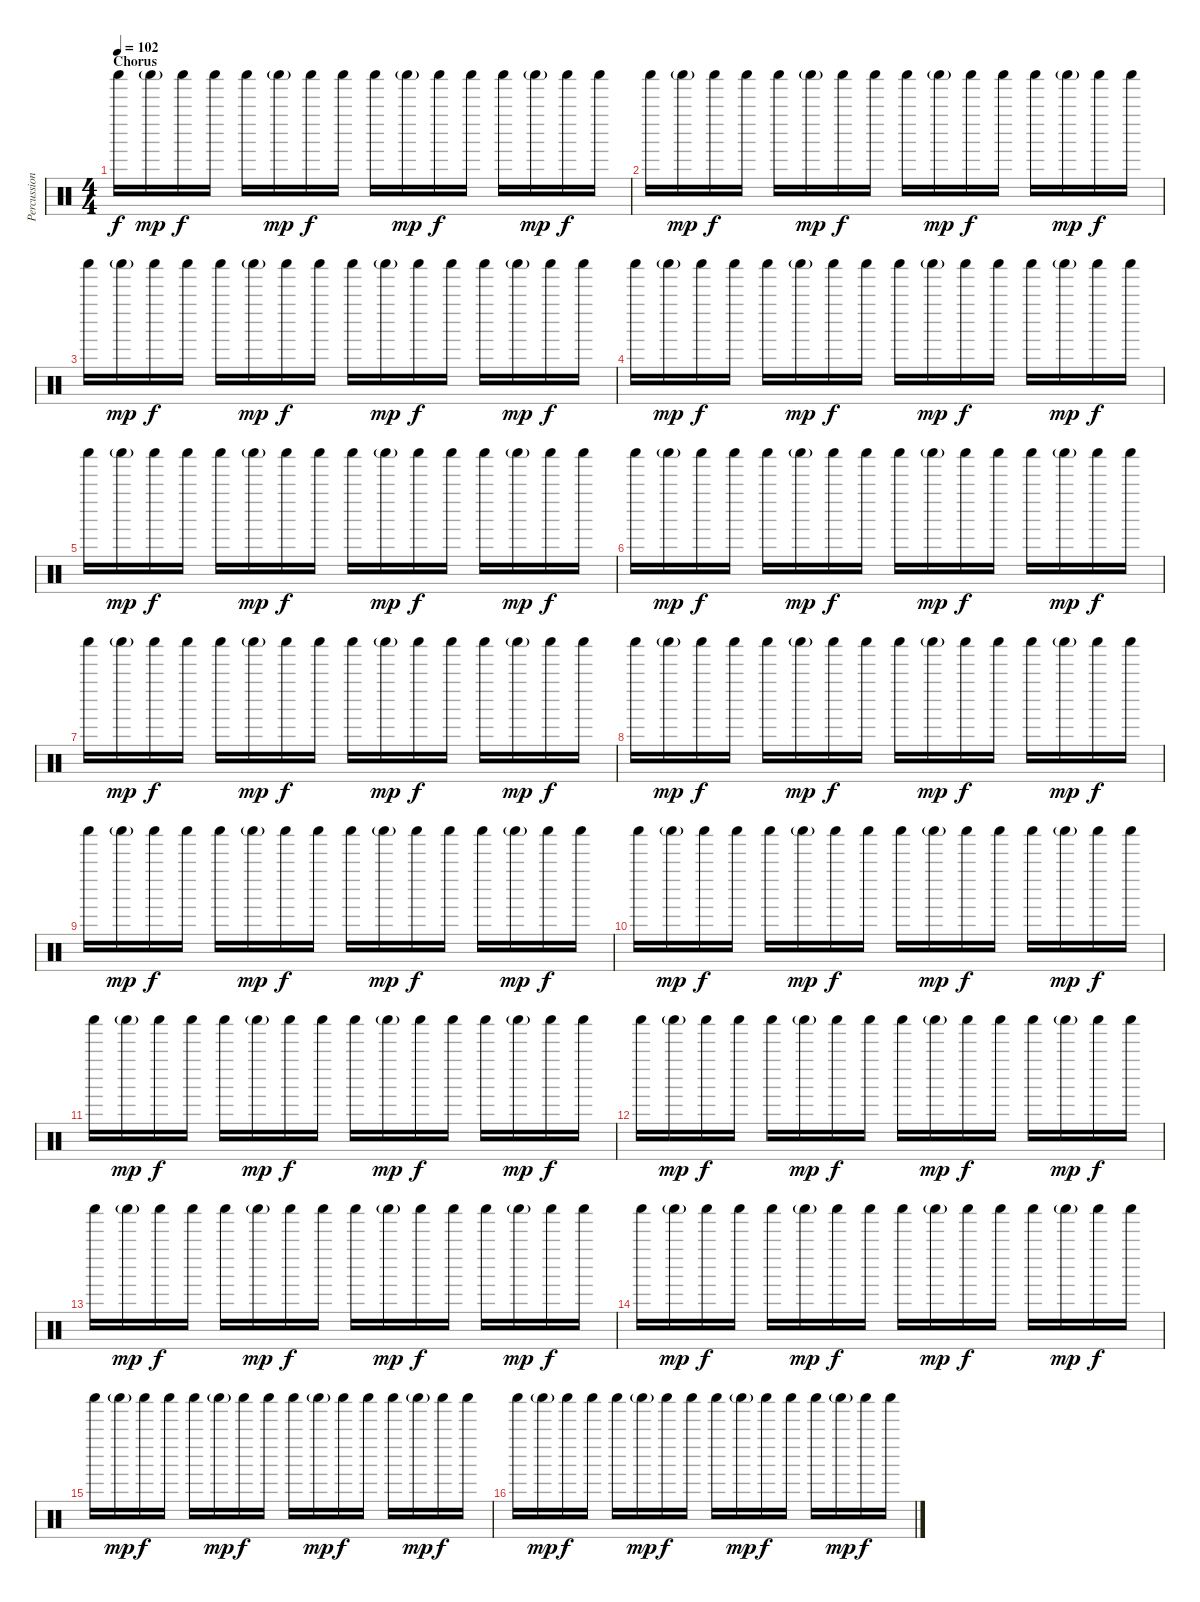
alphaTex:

\track ("Percussion" "Percussion") {instrument percussion}
\staff {score}
\articulation defaults
\ts (4 4)
\section ("" "Chorus")
\tempo 102
\clef neutral
\ks c "Shaker (hit)".16{dy f} "Shaker (hit)"{g}.16{dy mp} "Shaker (hit)".16{dy f} "Shaker (hit)".16 "Shaker (hit)".16 "Shaker (hit)"{g}.16{dy mp} "Shaker (hit)".16{dy f} "Shaker (hit)".16 "Shaker (hit)".16 "Shaker (hit)"{g}.16{dy mp} "Shaker (hit)".16{dy f} "Shaker (hit)".16 "Shaker (hit)".16 "Shaker (hit)"{g}.16{dy mp} "Shaker (hit)".16{dy f} "Shaker (hit)".16
|
"Shaker (hit)".16 "Shaker (hit)"{g}.16{dy mp} "Shaker (hit)".16{dy f} "Shaker (hit)".16 "Shaker (hit)".16 "Shaker (hit)"{g}.16{dy mp} "Shaker (hit)".16{dy f} "Shaker (hit)".16 "Shaker (hit)".16 "Shaker (hit)"{g}.16{dy mp} "Shaker (hit)".16{dy f} "Shaker (hit)".16 "Shaker (hit)".16 "Shaker (hit)"{g}.16{dy mp} "Shaker (hit)".16{dy f} "Shaker (hit)".16 |
"Shaker (hit)".16 "Shaker (hit)"{g}.16{dy mp} "Shaker (hit)".16{dy f} "Shaker (hit)".16 "Shaker (hit)".16 "Shaker (hit)"{g}.16{dy mp} "Shaker (hit)".16{dy f} "Shaker (hit)".16 "Shaker (hit)".16 "Shaker (hit)"{g}.16{dy mp} "Shaker (hit)".16{dy f} "Shaker (hit)".16 "Shaker (hit)".16 "Shaker (hit)"{g}.16{dy mp} "Shaker (hit)".16{dy f} "Shaker (hit)".16 |
"Shaker (hit)".16 "Shaker (hit)"{g}.16{dy mp} "Shaker (hit)".16{dy f} "Shaker (hit)".16 "Shaker (hit)".16 "Shaker (hit)"{g}.16{dy mp} "Shaker (hit)".16{dy f} "Shaker (hit)".16 "Shaker (hit)".16 "Shaker (hit)"{g}.16{dy mp} "Shaker (hit)".16{dy f} "Shaker (hit)".16 "Shaker (hit)".16 "Shaker (hit)"{g}.16{dy mp} "Shaker (hit)".16{dy f} "Shaker (hit)".16 |
"Shaker (hit)".16 "Shaker (hit)"{g}.16{dy mp} "Shaker (hit)".16{dy f} "Shaker (hit)".16 "Shaker (hit)".16 "Shaker (hit)"{g}.16{dy mp} "Shaker (hit)".16{dy f} "Shaker (hit)".16 "Shaker (hit)".16 "Shaker (hit)"{g}.16{dy mp} "Shaker (hit)".16{dy f} "Shaker (hit)".16 "Shaker (hit)".16 "Shaker (hit)"{g}.16{dy mp} "Shaker (hit)".16{dy f} "Shaker (hit)".16 |
"Shaker (hit)".16 "Shaker (hit)"{g}.16{dy mp} "Shaker (hit)".16{dy f} "Shaker (hit)".16 "Shaker (hit)".16 "Shaker (hit)"{g}.16{dy mp} "Shaker (hit)".16{dy f} "Shaker (hit)".16 "Shaker (hit)".16 "Shaker (hit)"{g}.16{dy mp} "Shaker (hit)".16{dy f} "Shaker (hit)".16 "Shaker (hit)".16 "Shaker (hit)"{g}.16{dy mp} "Shaker (hit)".16{dy f} "Shaker (hit)".16 |
"Shaker (hit)".16 "Shaker (hit)"{g}.16{dy mp} "Shaker (hit)".16{dy f} "Shaker (hit)".16 "Shaker (hit)".16 "Shaker (hit)"{g}.16{dy mp} "Shaker (hit)".16{dy f} "Shaker (hit)".16 "Shaker (hit)".16 "Shaker (hit)"{g}.16{dy mp} "Shaker (hit)".16{dy f} "Shaker (hit)".16 "Shaker (hit)".16 "Shaker (hit)"{g}.16{dy mp} "Shaker (hit)".16{dy f} "Shaker (hit)".16 |
"Shaker (hit)".16 "Shaker (hit)"{g}.16{dy mp} "Shaker (hit)".16{dy f} "Shaker (hit)".16 "Shaker (hit)".16 "Shaker (hit)"{g}.16{dy mp} "Shaker (hit)".16{dy f} "Shaker (hit)".16 "Shaker (hit)".16 "Shaker (hit)"{g}.16{dy mp} "Shaker (hit)".16{dy f} "Shaker (hit)".16 "Shaker (hit)".16 "Shaker (hit)"{g}.16{dy mp} "Shaker (hit)".16{dy f} "Shaker (hit)".16 |
"Shaker (hit)".16 "Shaker (hit)"{g}.16{dy mp} "Shaker (hit)".16{dy f} "Shaker (hit)".16 "Shaker (hit)".16 "Shaker (hit)"{g}.16{dy mp} "Shaker (hit)".16{dy f} "Shaker (hit)".16 "Shaker (hit)".16 "Shaker (hit)"{g}.16{dy mp} "Shaker (hit)".16{dy f} "Shaker (hit)".16 "Shaker (hit)".16 "Shaker (hit)"{g}.16{dy mp} "Shaker (hit)".16{dy f} "Shaker (hit)".16 |
"Shaker (hit)".16 "Shaker (hit)"{g}.16{dy mp} "Shaker (hit)".16{dy f} "Shaker (hit)".16 "Shaker (hit)".16 "Shaker (hit)"{g}.16{dy mp} "Shaker (hit)".16{dy f} "Shaker (hit)".16 "Shaker (hit)".16 "Shaker (hit)"{g}.16{dy mp} "Shaker (hit)".16{dy f} "Shaker (hit)".16 "Shaker (hit)".16 "Shaker (hit)"{g}.16{dy mp} "Shaker (hit)".16{dy f} "Shaker (hit)".16 |
"Shaker (hit)".16 "Shaker (hit)"{g}.16{dy mp} "Shaker (hit)".16{dy f} "Shaker (hit)".16 "Shaker (hit)".16 "Shaker (hit)"{g}.16{dy mp} "Shaker (hit)".16{dy f} "Shaker (hit)".16 "Shaker (hit)".16 "Shaker (hit)"{g}.16{dy mp} "Shaker (hit)".16{dy f} "Shaker (hit)".16 "Shaker (hit)".16 "Shaker (hit)"{g}.16{dy mp} "Shaker (hit)".16{dy f} "Shaker (hit)".16 |
"Shaker (hit)".16 "Shaker (hit)"{g}.16{dy mp} "Shaker (hit)".16{dy f} "Shaker (hit)".16 "Shaker (hit)".16 "Shaker (hit)"{g}.16{dy mp} "Shaker (hit)".16{dy f} "Shaker (hit)".16 "Shaker (hit)".16 "Shaker (hit)"{g}.16{dy mp} "Shaker (hit)".16{dy f} "Shaker (hit)".16 "Shaker (hit)".16 "Shaker (hit)"{g}.16{dy mp} "Shaker (hit)".16{dy f} "Shaker (hit)".16 |
"Shaker (hit)".16 "Shaker (hit)"{g}.16{dy mp} "Shaker (hit)".16{dy f} "Shaker (hit)".16 "Shaker (hit)".16 "Shaker (hit)"{g}.16{dy mp} "Shaker (hit)".16{dy f} "Shaker (hit)".16 "Shaker (hit)".16 "Shaker (hit)"{g}.16{dy mp} "Shaker (hit)".16{dy f} "Shaker (hit)".16 "Shaker (hit)".16 "Shaker (hit)"{g}.16{dy mp} "Shaker (hit)".16{dy f} "Shaker (hit)".16 |
"Shaker (hit)".16 "Shaker (hit)"{g}.16{dy mp} "Shaker (hit)".16{dy f} "Shaker (hit)".16 "Shaker (hit)".16 "Shaker (hit)"{g}.16{dy mp} "Shaker (hit)".16{dy f} "Shaker (hit)".16 "Shaker (hit)".16 "Shaker (hit)"{g}.16{dy mp} "Shaker (hit)".16{dy f} "Shaker (hit)".16 "Shaker (hit)".16 "Shaker (hit)"{g}.16{dy mp} "Shaker (hit)".16{dy f} "Shaker (hit)".16 |
"Shaker (hit)".16 "Shaker (hit)"{g}.16{dy mp} "Shaker (hit)".16{dy f} "Shaker (hit)".16 "Shaker (hit)".16 "Shaker (hit)"{g}.16{dy mp} "Shaker (hit)".16{dy f} "Shaker (hit)".16 "Shaker (hit)".16 "Shaker (hit)"{g}.16{dy mp} "Shaker (hit)".16{dy f} "Shaker (hit)".16 "Shaker (hit)".16 "Shaker (hit)"{g}.16{dy mp} "Shaker (hit)".16{dy f} "Shaker (hit)".16 |
"Shaker (hit)".16 "Shaker (hit)"{g}.16{dy mp} "Shaker (hit)".16{dy f} "Shaker (hit)".16 "Shaker (hit)".16 "Shaker (hit)"{g}.16{dy mp} "Shaker (hit)".16{dy f} "Shaker (hit)".16 "Shaker (hit)".16 "Shaker (hit)"{g}.16{dy mp} "Shaker (hit)".16{dy f} "Shaker (hit)".16 "Shaker (hit)".16 "Shaker (hit)"{g}.16{dy mp} "Shaker (hit)".16{dy f} "Shaker (hit)".16
